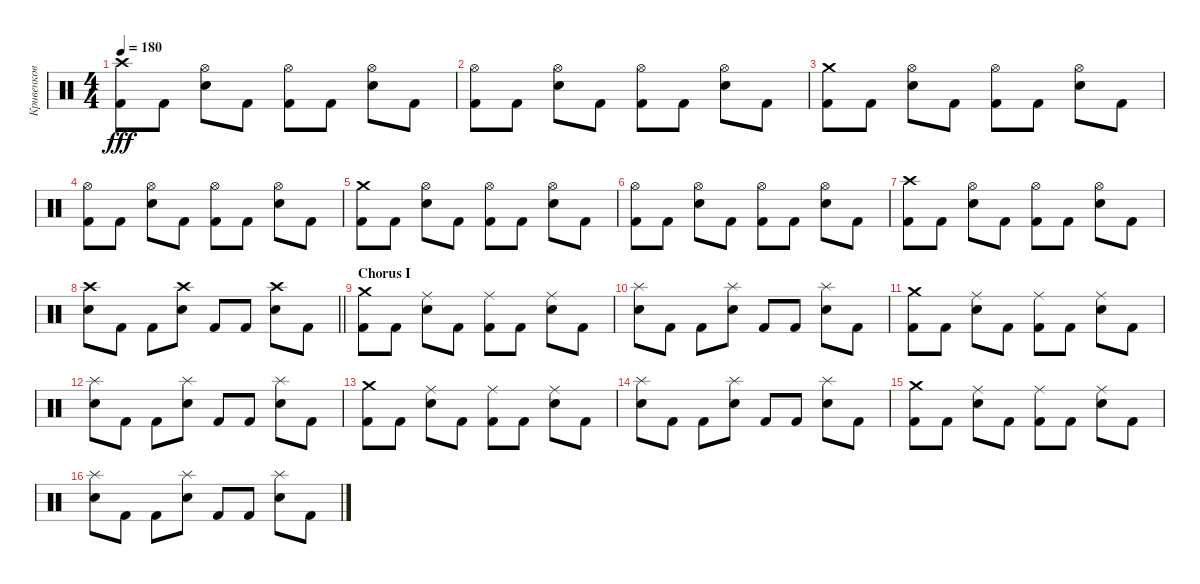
\track ("Кривенков" "Кривенков") {instrument percussion}
\staff {score}
\articulation defaults
\ts (4 4)
\tempo 180
\clef neutral
\ks c
("Kick (hit) 2" "Crash high (hit)").8{dy fff} "Kick (hit) 2".8 ("Snare (hit) 2" "Hi-Hat (open)").8 "Kick (hit) 2".8 ("Kick (hit) 2" "Hi-Hat (open)").8 "Kick (hit) 2".8 ("Snare (hit) 2" "Hi-Hat (open)").8 "Kick (hit) 2".8 |
("Hi-Hat (open)" "Kick (hit) 2").8 "Kick (hit) 2".8 ("Snare (hit) 2" "Hi-Hat (open)").8 "Kick (hit) 2".8 ("Hi-Hat (open)" "Kick (hit) 2").8 "Kick (hit) 2".8 ("Hi-Hat (open)" "Snare (hit) 2").8 "Kick (hit) 2".8 |
("Crash medium (hit)" "Kick (hit) 2").8 "Kick (hit) 2".8 ("Hi-Hat (open)" "Snare (hit) 2").8 "Kick (hit) 2".8 ("Kick (hit) 2" "Hi-Hat (open)").8 "Kick (hit) 2".8 ("Hi-Hat (open)" "Snare (hit) 2").8 "Kick (hit) 2".8 |
("Kick (hit) 2" "Hi-Hat (open)").8 "Kick (hit) 2".8 ("Snare (hit) 2" "Hi-Hat (open)").8 "Kick (hit) 2".8 ("Kick (hit) 2" "Hi-Hat (open)").8 "Kick (hit) 2".8 ("Hi-Hat (open)" "Snare (hit) 2").8 "Kick (hit) 2".8 |
("Crash medium (hit)" "Kick (hit) 2").8 "Kick (hit) 2".8 ("Snare (hit) 2" "Hi-Hat (open)").8 "Kick (hit) 2".8 ("Kick (hit) 2" "Hi-Hat (open)").8 "Kick (hit) 2".8 ("Snare (hit) 2" "Hi-Hat (open)").8 "Kick (hit) 2".8 |
("Kick (hit) 2" "Hi-Hat (open)").8 "Kick (hit) 2".8 ("Hi-Hat (open)" "Snare (hit) 2").8 "Kick (hit) 2".8 ("Hi-Hat (open)" "Kick (hit) 2").8 "Kick (hit) 2".8 ("Hi-Hat (open)" "Snare (hit) 2").8 "Kick (hit) 2".8 |
("Crash high (hit)" "Kick (hit) 2").8 "Kick (hit) 2".8 ("Snare (hit) 2" "Hi-Hat (open)").8 "Kick (hit) 2".8 ("Kick (hit) 2" "Hi-Hat (open)").8 "Kick (hit) 2".8 ("Snare (hit) 2" "Hi-Hat (open)").8 "Kick (hit) 2".8 |
\barLineRight lightlight
("Snare (hit) 2" "Crash high (hit)").8 "Kick (hit) 2".8 "Kick (hit) 2".8 ("Snare (hit) 2" "Crash high (hit)").8 "Kick (hit) 2".8 "Kick (hit) 2".8 ("Snare (hit) 2" "Crash high (hit)").8 "Kick (hit) 2".8 |
\section ("" "Chorus I")
("Crash medium (hit)" "Kick (hit) 2").8 "Kick (hit) 2".8 ("Ride (middle)" "Snare (hit) 2").8 "Kick (hit) 2".8 ("Kick (hit) 2" "Ride (middle)").8 "Kick (hit) 2".8 ("Snare (hit) 2" "Ride (middle)").8 "Kick (hit) 2".8 |
("Snare (hit) 2" "Splash (hit)").8 "Kick (hit) 2".8 "Kick (hit) 2".8 ("Splash (hit)" "Snare (hit) 2").8 "Kick (hit) 2".8 "Kick (hit) 2".8 ("Splash (hit)" "Snare (hit) 2").8 "Kick (hit) 2".8 |
("Crash medium (hit)" "Kick (hit) 2").8 "Kick (hit) 2".8 ("Ride (middle)" "Snare (hit) 2").8 "Kick (hit) 2".8 ("Ride (middle)" "Kick (hit) 2").8 "Kick (hit) 2".8 ("Snare (hit) 2" "Ride (middle)").8 "Kick (hit) 2".8 |
("Snare (hit) 2" "Splash (hit)").8 "Kick (hit) 2".8 "Kick (hit) 2".8 ("Splash (hit)" "Snare (hit) 2").8 "Kick (hit) 2".8 "Kick (hit) 2".8 ("Snare (hit) 2" "Splash (hit)").8 "Kick (hit) 2".8 |
("Kick (hit) 2" "Crash medium (hit)").8 "Kick (hit) 2".8 ("Snare (hit) 2" "Ride (middle)").8 "Kick (hit) 2".8 ("Kick (hit) 2" "Ride (middle)").8 "Kick (hit) 2".8 ("Snare (hit) 2" "Ride (middle)").8 "Kick (hit) 2".8 |
("Splash (hit)" "Snare (hit) 2").8 "Kick (hit) 2".8 "Kick (hit) 2".8 ("Splash (hit)" "Snare (hit) 2").8 "Kick (hit) 2".8 "Kick (hit) 2".8 ("Snare (hit) 2" "Splash (hit)").8 "Kick (hit) 2".8 |
("Crash medium (hit)" "Kick (hit) 2").8 "Kick (hit) 2".8 ("Ride (middle)" "Snare (hit) 2").8 "Kick (hit) 2".8 ("Ride (middle)" "Kick (hit) 2").8 "Kick (hit) 2".8 ("Snare (hit) 2" "Ride (middle)").8 "Kick (hit) 2".8 |
("Snare (hit) 2" "Splash (hit)").8 "Kick (hit) 2".8 "Kick (hit) 2".8 ("Splash (hit)" "Snare (hit) 2").8 "Kick (hit) 2".8 "Kick (hit) 2".8 ("Splash (hit)" "Snare (hit) 2").8 "Kick (hit) 2".8
